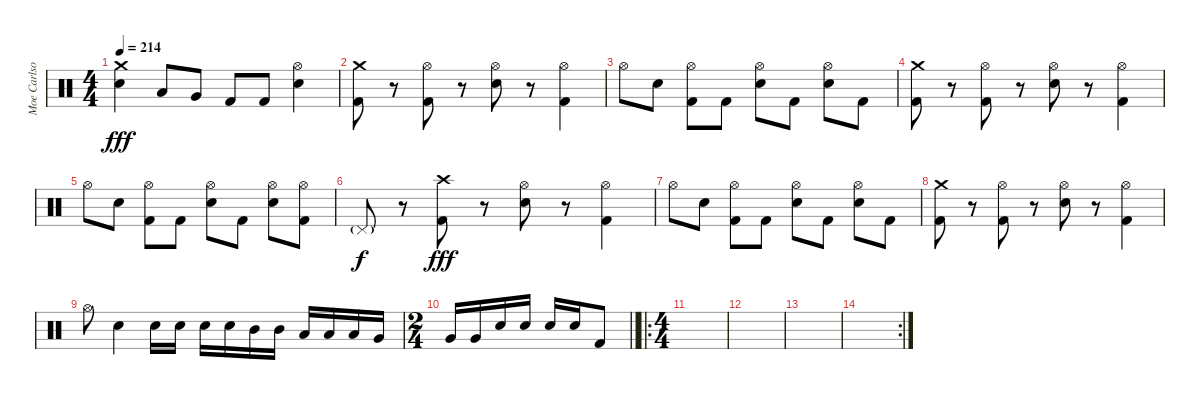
\track ("Moe Carlson" "Moe Carlso") {instrument percussion}
\staff {score}
\articulation defaults
\ts (4 4)
\tempo 214
\clef neutral
\ks c
("Crash medium (hit)" "Electric Snare (hit)").4{dy fff} "Low Tom (hit)".8 "Very Low Tom (hit)".8 "Kick (hit) 2".8 "Kick (hit) 2".8 ("Hi-Hat (open)" "Electric Snare (hit)").4 |
("Crash medium (hit)" "Kick (hit) 2").8 r.8 ("Hi-Hat (open)" "Kick (hit) 2").8 r.8 ("Hi-Hat (open)" "Electric Snare (hit)").8 r.8 ("Hi-Hat (open)" "Kick (hit) 2").4 |
"Hi-Hat (open)".8 "Electric Snare (hit)".8 ("Hi-Hat (open)" "Kick (hit) 2").8 "Kick (hit) 2".8 ("Hi-Hat (open)" "Electric Snare (hit)").8 "Kick (hit) 2".8 ("Hi-Hat (open)" "Electric Snare (hit)").8 "Kick (hit) 2".8 |
("Crash medium (hit)" "Kick (hit) 2").8 r.8 ("Hi-Hat (open)" "Kick (hit) 2").8 r.8 ("Hi-Hat (open)" "Electric Snare (hit)").8 r.8 ("Hi-Hat (open)" "Kick (hit) 2").4 |
"Hi-Hat (open)".8 "Electric Snare (hit)".8 ("Hi-Hat (open)" "Kick (hit) 2").8 "Kick (hit) 2".8 ("Hi-Hat (open)" "Electric Snare (hit)").8 "Kick (hit) 2".8 ("Hi-Hat (open)" "Electric Snare (hit)").8 ("Hi-Hat (open)" "Kick (hit) 2").8 |
"Pedal Hi-Hat (hit)"{g}.8{dy f} r.8 ("Crash high (hit)" "Kick (hit) 2").8{dy fff} r.8 ("Hi-Hat (open)" "Electric Snare (hit)").8 r.8 ("Hi-Hat (open)" "Kick (hit) 2").4 |
"Hi-Hat (open)".8 "Electric Snare (hit)".8 ("Hi-Hat (open)" "Kick (hit) 2").8 "Kick (hit) 2".8 ("Hi-Hat (open)" "Electric Snare (hit)").8 "Kick (hit) 2".8 ("Hi-Hat (open)" "Electric Snare (hit)").8 "Kick (hit) 2".8 |
("Crash medium (hit)" "Kick (hit) 2").8 r.8 ("Hi-Hat (open)" "Kick (hit) 2").8 r.8 ("Hi-Hat (open)" "Electric Snare (hit)").8 r.8 ("Hi-Hat (open)" "Kick (hit) 2").4 |
"Hi-Hat (open)".8 "Electric Snare (hit)".4 "Electric Snare (hit)".16 "Electric Snare (hit)".16 "Electric Snare (hit)".16 "Electric Snare (hit)".16 "Mid Tom (hit)".16 "Mid Tom (hit)".16 "Low Tom (hit)".16 "Low Tom (hit)".16 "Low Tom (hit)".16 "Very Low Tom (hit)".16 |
\ts (2 4)
\barLineRight lightlight "Very Low Tom (hit)".16 "Very Low Tom (hit)".16 "Electric Snare (hit)".16 "Electric Snare (hit)".16 "Electric Snare (hit)".16 "Electric Snare (hit)".16 "Kick (hit) 2".8
|
\ro
\ts (4 4)
|
|
|
\rc 2
